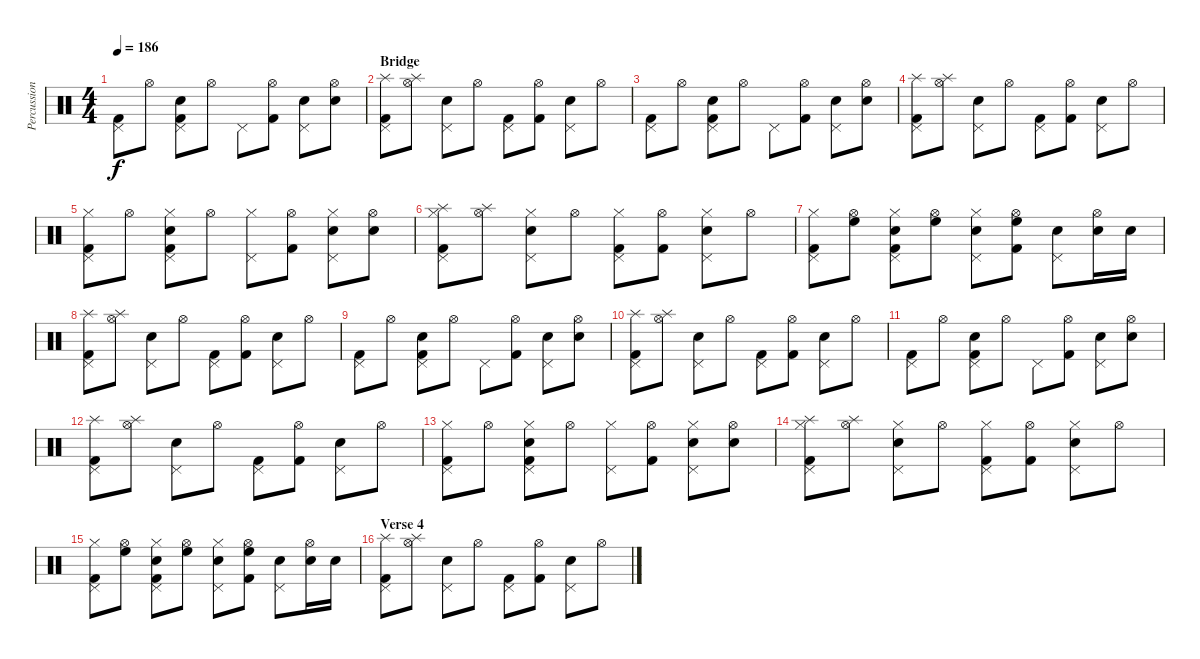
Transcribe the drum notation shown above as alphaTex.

\track ("Percussion" "Percussion") {instrument percussion}
\staff {score}
\articulation defaults
\ts (4 4)
\tempo 186
\clef neutral
\ks c
("Pedal Hi-Hat (hit)" "Kick (hit) 2").8{dy f} "Hi-Hat (open)".8 ("Pedal Hi-Hat (hit)" "Snare (hit) 2" "Kick (hit) 2").8 "Hi-Hat (open)".8 "Pedal Hi-Hat (hit)".8 ("Hi-Hat (open)" "Kick (hit) 2").8 ("Pedal Hi-Hat (hit)" "Snare (hit) 2").8 ("Hi-Hat (open)" "Snare (hit) 2").8 |
\section ("" "Bridge")
("Pedal Hi-Hat (hit)" "Splash (hit)" "Kick (hit) 2").8 ("Hi-Hat (open)" "Splash (hit)").8 ("Pedal Hi-Hat (hit)" "Snare (hit) 2").8 "Hi-Hat (open)".8 ("Pedal Hi-Hat (hit)" "Kick (hit) 2").8 ("Hi-Hat (open)" "Kick (hit) 2").8 ("Pedal Hi-Hat (hit)" "Snare (hit) 2").8 "Hi-Hat (open)".8 |
("Pedal Hi-Hat (hit)" "Kick (hit) 2").8 "Hi-Hat (open)".8 ("Pedal Hi-Hat (hit)" "Snare (hit) 2" "Kick (hit) 2").8 "Hi-Hat (open)".8 "Pedal Hi-Hat (hit)".8 ("Hi-Hat (open)" "Kick (hit) 2").8 ("Pedal Hi-Hat (hit)" "Snare (hit) 2").8 ("Hi-Hat (open)" "Snare (hit) 2").8 |
("Pedal Hi-Hat (hit)" "Splash (hit)" "Kick (hit) 2").8 ("Hi-Hat (open)" "Splash (hit)").8 ("Pedal Hi-Hat (hit)" "Snare (hit) 2").8 "Hi-Hat (open)".8 ("Pedal Hi-Hat (hit)" "Kick (hit) 2").8 ("Hi-Hat (open)" "Kick (hit) 2").8 ("Pedal Hi-Hat (hit)" "Snare (hit) 2").8 "Hi-Hat (open)".8 |
("Pedal Hi-Hat (hit)" "Hi-Hat (closed)" "Kick (hit) 2").8 "Hi-Hat (open)".8 ("Pedal Hi-Hat (hit)" "Hi-Hat (closed)" "Snare (hit) 2" "Kick (hit) 2").8 "Hi-Hat (open)".8 ("Pedal Hi-Hat (hit)" "Hi-Hat (closed)").8 ("Hi-Hat (open)" "Kick (hit) 2").8 ("Pedal Hi-Hat (hit)" "Hi-Hat (closed)" "Snare (hit) 2").8 ("Hi-Hat (open)" "Snare (hit) 2").8 |
("Pedal Hi-Hat (hit)" "Hi-Hat (closed)" "Splash (hit)" "Kick (hit) 2").8 ("Hi-Hat (open)" "Splash (hit)").8 ("Pedal Hi-Hat (hit)" "Hi-Hat (closed)" "Snare (hit) 2").8 "Hi-Hat (open)".8 ("Pedal Hi-Hat (hit)" "Hi-Hat (closed)" "Kick (hit) 2").8 ("Hi-Hat (open)" "Kick (hit) 2").8 ("Pedal Hi-Hat (hit)" "Hi-Hat (closed)" "Snare (hit) 2").8 "Hi-Hat (open)".8 |
("Pedal Hi-Hat (hit)" "Hi-Hat (closed)" "Kick (hit) 2").8 ("Hi-Hat (open)" "High Floor Tom (hit)").8 ("Pedal Hi-Hat (hit)" "Hi-Hat (closed)" "Snare (hit) 2" "Kick (hit) 2").8 ("Hi-Hat (open)" "High Floor Tom (hit)").8 ("Pedal Hi-Hat (hit)" "Hi-Hat (closed)" "Snare (hit) 2").8 ("Hi-Hat (open)" "High Floor Tom (hit)" "Kick (hit) 2").8 ("Pedal Hi-Hat (hit)" "Snare (hit) 2").8 ("Hi-Hat (open)" "Snare (hit) 2").16 "Snare (hit) 2".16 |
("Pedal Hi-Hat (hit)" "Splash (hit)" "Kick (hit) 2").8 ("Hi-Hat (open)" "Splash (hit)").8 ("Pedal Hi-Hat (hit)" "Snare (hit) 2").8 "Hi-Hat (open)".8 ("Pedal Hi-Hat (hit)" "Kick (hit) 2").8 ("Hi-Hat (open)" "Kick (hit) 2").8 ("Pedal Hi-Hat (hit)" "Snare (hit) 2").8 "Hi-Hat (open)".8 |
("Pedal Hi-Hat (hit)" "Kick (hit) 2").8 "Hi-Hat (open)".8 ("Pedal Hi-Hat (hit)" "Snare (hit) 2" "Kick (hit) 2").8 "Hi-Hat (open)".8 "Pedal Hi-Hat (hit)".8 ("Hi-Hat (open)" "Kick (hit) 2").8 ("Pedal Hi-Hat (hit)" "Snare (hit) 2").8 ("Hi-Hat (open)" "Snare (hit) 2").8 |
("Pedal Hi-Hat (hit)" "Splash (hit)" "Kick (hit) 2").8 ("Hi-Hat (open)" "Splash (hit)").8 ("Pedal Hi-Hat (hit)" "Snare (hit) 2").8 "Hi-Hat (open)".8 ("Pedal Hi-Hat (hit)" "Kick (hit) 2").8 ("Hi-Hat (open)" "Kick (hit) 2").8 ("Pedal Hi-Hat (hit)" "Snare (hit) 2").8 "Hi-Hat (open)".8 |
("Pedal Hi-Hat (hit)" "Kick (hit) 2").8 "Hi-Hat (open)".8 ("Pedal Hi-Hat (hit)" "Snare (hit) 2" "Kick (hit) 2").8 "Hi-Hat (open)".8 "Pedal Hi-Hat (hit)".8 ("Hi-Hat (open)" "Kick (hit) 2").8 ("Pedal Hi-Hat (hit)" "Snare (hit) 2").8 ("Hi-Hat (open)" "Snare (hit) 2").8 |
("Pedal Hi-Hat (hit)" "Splash (hit)" "Kick (hit) 2").8 ("Hi-Hat (open)" "Splash (hit)").8 ("Pedal Hi-Hat (hit)" "Snare (hit) 2").8 "Hi-Hat (open)".8 ("Pedal Hi-Hat (hit)" "Kick (hit) 2").8 ("Hi-Hat (open)" "Kick (hit) 2").8 ("Pedal Hi-Hat (hit)" "Snare (hit) 2").8 "Hi-Hat (open)".8 |
("Pedal Hi-Hat (hit)" "Hi-Hat (closed)" "Kick (hit) 2").8 "Hi-Hat (open)".8 ("Pedal Hi-Hat (hit)" "Hi-Hat (closed)" "Snare (hit) 2" "Kick (hit) 2").8 "Hi-Hat (open)".8 ("Pedal Hi-Hat (hit)" "Hi-Hat (closed)").8 ("Hi-Hat (open)" "Kick (hit) 2").8 ("Pedal Hi-Hat (hit)" "Hi-Hat (closed)" "Snare (hit) 2").8 ("Hi-Hat (open)" "Snare (hit) 2").8 |
("Pedal Hi-Hat (hit)" "Hi-Hat (closed)" "Splash (hit)" "Kick (hit) 2").8 ("Hi-Hat (open)" "Splash (hit)").8 ("Pedal Hi-Hat (hit)" "Hi-Hat (closed)" "Snare (hit) 2").8 "Hi-Hat (open)".8 ("Pedal Hi-Hat (hit)" "Hi-Hat (closed)" "Kick (hit) 2").8 ("Hi-Hat (open)" "Kick (hit) 2").8 ("Pedal Hi-Hat (hit)" "Hi-Hat (closed)" "Snare (hit) 2").8 "Hi-Hat (open)".8 |
("Pedal Hi-Hat (hit)" "Hi-Hat (closed)" "Kick (hit) 2").8 ("Hi-Hat (open)" "High Floor Tom (hit)").8 ("Pedal Hi-Hat (hit)" "Hi-Hat (closed)" "Snare (hit) 2" "Kick (hit) 2").8 ("Hi-Hat (open)" "High Floor Tom (hit)").8 ("Pedal Hi-Hat (hit)" "Hi-Hat (closed)" "Snare (hit) 2").8 ("Hi-Hat (open)" "High Floor Tom (hit)" "Kick (hit) 2").8 ("Pedal Hi-Hat (hit)" "Snare (hit) 2").8 ("Hi-Hat (open)" "Snare (hit) 2").16 "Snare (hit) 2".16 |
\section ("" "Verse 4")
("Pedal Hi-Hat (hit)" "Splash (hit)" "Kick (hit) 2").8 ("Hi-Hat (open)" "Splash (hit)").8 ("Pedal Hi-Hat (hit)" "Snare (hit) 2").8 "Hi-Hat (open)".8 ("Pedal Hi-Hat (hit)" "Kick (hit) 2").8 ("Hi-Hat (open)" "Kick (hit) 2").8 ("Pedal Hi-Hat (hit)" "Snare (hit) 2").8 "Hi-Hat (open)".8
